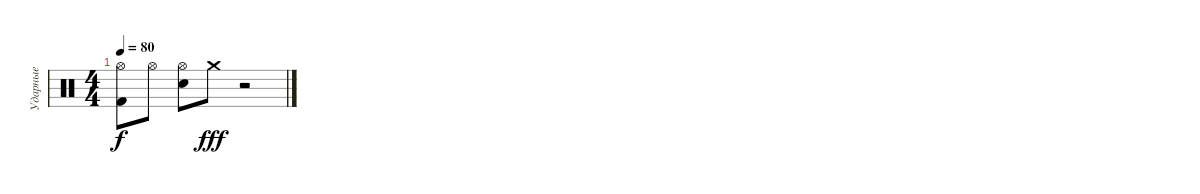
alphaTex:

\track ("Ударные" "Ударные") {instrument percussion}
\staff {score}
\articulation defaults
\ts (4 4)
\tempo 80
\clef neutral
\ks c
("Hi-Hat (open)" "Kick (hit) 2").8{dy f} "Hi-Hat (open)".8 ("Hi-Hat (open)" "Electric Snare (hit)").8 "Crash medium (hit)".8{dy fff} r.2
